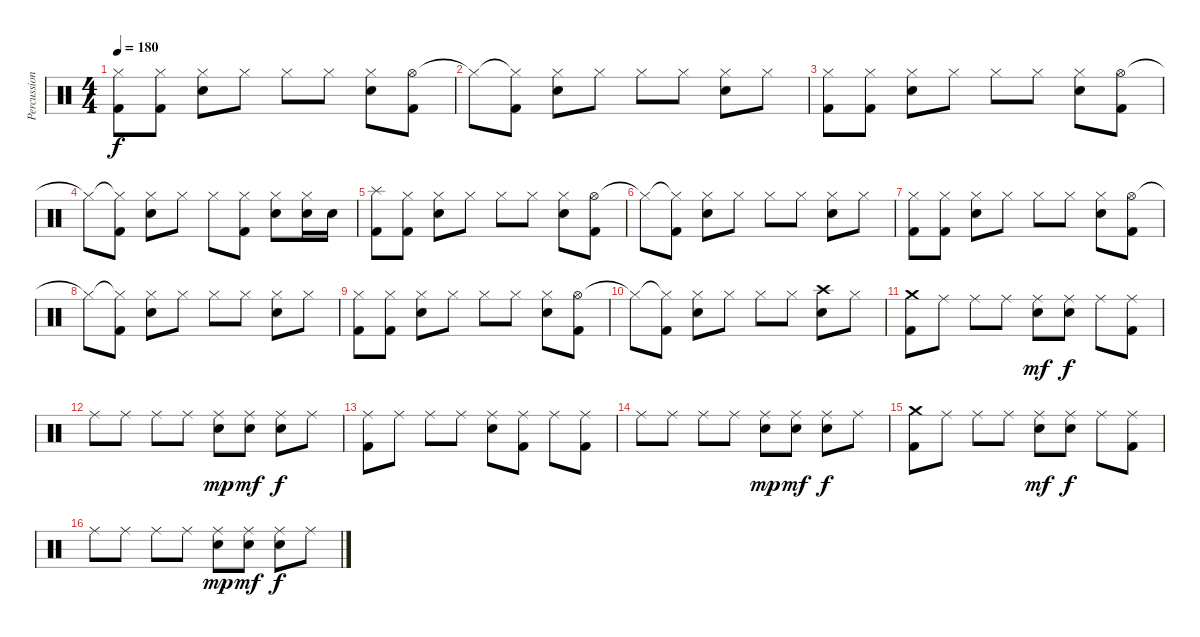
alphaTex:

\track ("Percussion" "Percussion") {instrument percussion}
\staff {score}
\articulation defaults
\ts (4 4)
\tempo 180
\clef neutral
\ks c
("Hi-Hat (closed)" "Kick (hit) 2").8{dy f} ("Hi-Hat (closed)" "Kick (hit) 2").8 ("Hi-Hat (closed)" "Snare (hit) 2").8 "Hi-Hat (closed)".8 "Hi-Hat (closed)".8 "Hi-Hat (closed)".8 ("Hi-Hat (closed)" "Snare (hit) 2").8 ("Hi-Hat (open)" "Kick (hit) 2").8 |
"Hi-Hat (closed)"{t}.8 ("Hi-Hat (closed)"{t} "Kick (hit) 2").8 ("Hi-Hat (closed)" "Snare (hit) 2").8 "Hi-Hat (closed)".8 "Hi-Hat (closed)".8 "Hi-Hat (closed)".8 ("Hi-Hat (closed)" "Snare (hit) 2").8 "Hi-Hat (closed)".8 |
("Hi-Hat (closed)" "Kick (hit) 2").8 ("Hi-Hat (closed)" "Kick (hit) 2").8 ("Hi-Hat (closed)" "Snare (hit) 2").8 "Hi-Hat (closed)".8 "Hi-Hat (closed)".8 "Hi-Hat (closed)".8 ("Hi-Hat (closed)" "Snare (hit) 2").8 ("Hi-Hat (open)" "Kick (hit) 2").8 |
"Hi-Hat (closed)"{t}.8 ("Hi-Hat (closed)"{t} "Kick (hit) 2").8 ("Hi-Hat (closed)" "Snare (hit) 2").8 "Hi-Hat (closed)".8 "Hi-Hat (closed)".8 ("Hi-Hat (closed)" "Kick (hit) 2").8 ("Hi-Hat (closed)" "Snare (hit) 2").8 ("Hi-Hat (closed)" "Snare (hit) 2").16 "Snare (hit) 2".16 |
("Splash (hit)" "Kick (hit) 2").8 ("Hi-Hat (closed)" "Kick (hit) 2").8 ("Hi-Hat (closed)" "Snare (hit) 2").8 "Hi-Hat (closed)".8 "Hi-Hat (closed)".8 "Hi-Hat (closed)".8 ("Hi-Hat (closed)" "Snare (hit) 2").8 ("Hi-Hat (open)" "Kick (hit) 2").8 |
"Hi-Hat (closed)"{t}.8 ("Hi-Hat (closed)"{t} "Kick (hit) 2").8 ("Hi-Hat (closed)" "Snare (hit) 2").8 "Hi-Hat (closed)".8 "Hi-Hat (closed)".8 "Hi-Hat (closed)".8 ("Hi-Hat (closed)" "Snare (hit) 2").8 "Hi-Hat (closed)".8 |
("Hi-Hat (closed)" "Kick (hit) 2").8 ("Hi-Hat (closed)" "Kick (hit) 2").8 ("Hi-Hat (closed)" "Snare (hit) 2").8 "Hi-Hat (closed)".8 "Hi-Hat (closed)".8 "Hi-Hat (closed)".8 ("Hi-Hat (closed)" "Snare (hit) 2").8 ("Hi-Hat (open)" "Kick (hit) 2").8 |
"Hi-Hat (closed)"{t}.8 ("Hi-Hat (closed)"{t} "Kick (hit) 2").8 ("Hi-Hat (closed)" "Snare (hit) 2").8 "Hi-Hat (closed)".8 "Hi-Hat (closed)".8 "Hi-Hat (closed)".8 ("Hi-Hat (closed)" "Snare (hit) 2").8 "Hi-Hat (closed)".8 |
("Hi-Hat (closed)" "Kick (hit) 2").8 ("Hi-Hat (closed)" "Kick (hit) 2").8 ("Hi-Hat (closed)" "Snare (hit) 2").8 "Hi-Hat (closed)".8 "Hi-Hat (closed)".8 "Hi-Hat (closed)".8 ("Hi-Hat (closed)" "Snare (hit) 2").8 ("Hi-Hat (open)" "Kick (hit) 2").8 |
"Hi-Hat (closed)"{t}.8 ("Hi-Hat (closed)"{t} "Kick (hit) 2").8 ("Hi-Hat (closed)" "Snare (hit) 2").8 "Hi-Hat (closed)".8 "Hi-Hat (closed)".8 "Hi-Hat (closed)".8 ("Crash high (hit)" "Snare (hit) 2").8 "Hi-Hat (closed)".8 |
("Crash medium (hit)" "Kick (hit) 2").8 "Ride (middle)".8 "Ride (middle)".8 "Ride (middle)".8 ("Ride (middle)" "Snare (hit) 2").8{dy mf} ("Ride (middle)" "Snare (hit) 2").8{dy f} "Ride (middle)".8 ("Ride (middle)" "Kick (hit) 2").8 |
"Ride (middle)".8 "Ride (middle)".8 "Ride (middle)".8 "Ride (middle)".8 ("Ride (middle)" "Snare (hit) 2").8{dy mp} ("Ride (middle)" "Snare (hit) 2").8{dy mf} ("Ride (middle)" "Snare (hit) 2").8{dy f} "Ride (middle)".8 |
("Ride (middle)" "Kick (hit) 2").8 "Ride (middle)".8 "Ride (middle)".8 "Ride (middle)".8 ("Ride (middle)" "Snare (hit) 2").8 ("Ride (middle)" "Kick (hit) 2").8 "Ride (middle)".8 ("Ride (middle)" "Kick (hit) 2").8 |
"Ride (middle)".8 "Ride (middle)".8 "Ride (middle)".8 "Ride (middle)".8 ("Ride (middle)" "Snare (hit) 2").8{dy mp} ("Ride (middle)" "Snare (hit) 2").8{dy mf} ("Ride (middle)" "Snare (hit) 2").8{dy f} "Ride (middle)".8 |
("Crash medium (hit)" "Kick (hit) 2").8 "Ride (middle)".8 "Ride (middle)".8 "Ride (middle)".8 ("Ride (middle)" "Snare (hit) 2").8{dy mf} ("Ride (middle)" "Snare (hit) 2").8{dy f} "Ride (middle)".8 ("Ride (middle)" "Kick (hit) 2").8 |
"Ride (middle)".8 "Ride (middle)".8 "Ride (middle)".8 "Ride (middle)".8 ("Ride (middle)" "Snare (hit) 2").8{dy mp} ("Ride (middle)" "Snare (hit) 2").8{dy mf} ("Ride (middle)" "Snare (hit) 2").8{dy f} "Ride (middle)".8
